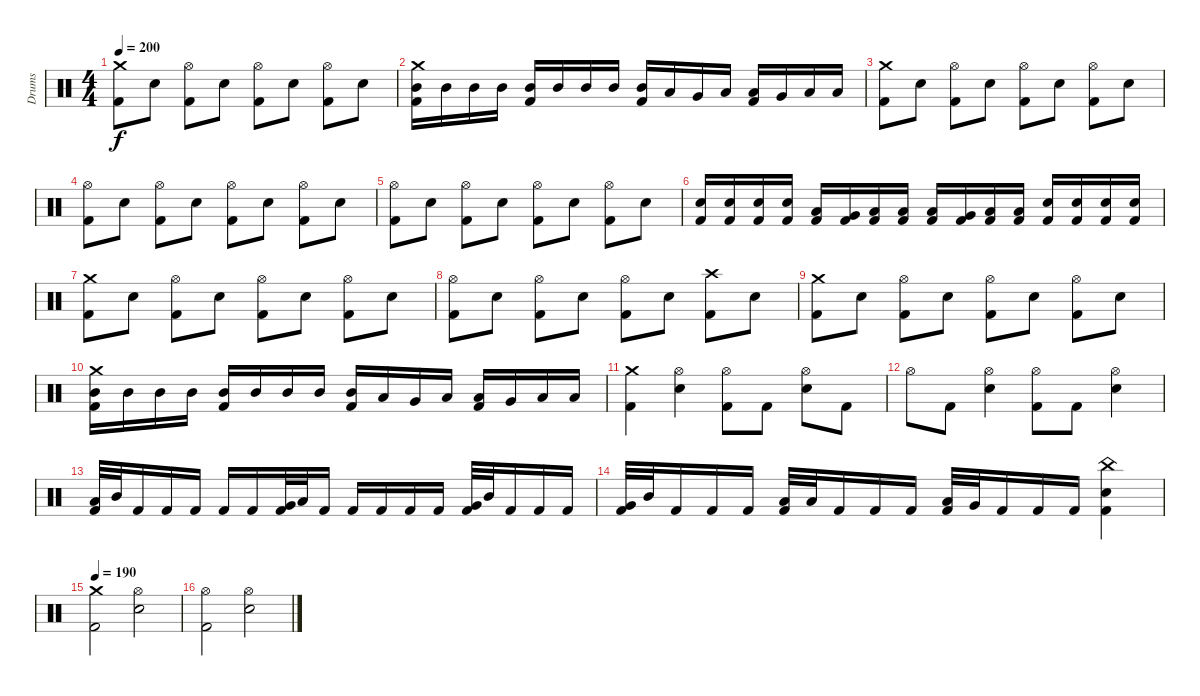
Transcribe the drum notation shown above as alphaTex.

\track ("Drums" "Drums") {instrument percussion}
\staff {score}
\articulation defaults
\ts (4 4)
\tempo 200
\clef neutral
\ks c
("Crash medium (hit)" "Kick (hit) 2").8{dy f} "Electric Snare (hit)".8 ("Hi-Hat (open)" "Kick (hit) 2").8 "Electric Snare (hit)".8 ("Hi-Hat (open)" "Kick (hit) 2").8 "Electric Snare (hit)".8 ("Hi-Hat (open)" "Kick (hit) 2").8 "Electric Snare (hit)".8 |
("Crash medium (hit)" "Mid Tom (hit)" "Kick (hit) 2").16 "Mid Tom (hit)".16 "Mid Tom (hit)".16 "Mid Tom (hit)".16 ("Mid Tom (hit)" "Kick (hit) 2").16 "Mid Tom (hit)".16 "Mid Tom (hit)".16 "Mid Tom (hit)".16 ("Mid Tom (hit)" "Kick (hit) 2").16 "Low Tom (hit)".16 "Very Low Tom (hit)".16 "Low Floor Tom (hit)".16 ("Low Tom (hit)" "Kick (hit) 2").16 "Very Low Tom (hit)".16 "Low Floor Tom (hit)".16 "Low Floor Tom (hit)".16 |
("Crash medium (hit)" "Kick (hit) 2").8 "Electric Snare (hit)".8 ("Hi-Hat (open)" "Kick (hit) 2").8 "Electric Snare (hit)".8 ("Hi-Hat (open)" "Kick (hit) 2").8 "Electric Snare (hit)".8 ("Hi-Hat (open)" "Kick (hit) 2").8 "Electric Snare (hit)".8 |
("Hi-Hat (open)" "Kick (hit) 2").8 "Electric Snare (hit)".8 ("Hi-Hat (open)" "Kick (hit) 2").8 "Electric Snare (hit)".8 ("Hi-Hat (open)" "Kick (hit) 2").8 "Electric Snare (hit)".8 ("Hi-Hat (open)" "Kick (hit) 2").8 "Electric Snare (hit)".8 |
("Hi-Hat (open)" "Kick (hit) 2").8 "Electric Snare (hit)".8 ("Hi-Hat (open)" "Kick (hit) 2").8 "Electric Snare (hit)".8 ("Hi-Hat (open)" "Kick (hit) 2").8 "Electric Snare (hit)".8 ("Hi-Hat (open)" "Kick (hit) 2").8 "Electric Snare (hit)".8 |
("Electric Snare (hit)" "Kick (hit) 2").16 ("Electric Snare (hit)" "Kick (hit) 2").16 ("Electric Snare (hit)" "Kick (hit) 2").16 ("Electric Snare (hit)" "Kick (hit) 2").16 ("Low Tom (hit)" "Kick (hit) 2").16 ("Very Low Tom (hit)" "Kick (hit) 2").16 ("Low Floor Tom (hit)" "Kick (hit) 2").16 ("Low Floor Tom (hit)" "Kick (hit) 2").16 ("Low Tom (hit)" "Kick (hit) 2").16 ("Very Low Tom (hit)" "Kick (hit) 2").16 ("Low Floor Tom (hit)" "Kick (hit) 2").16 ("Low Floor Tom (hit)" "Kick (hit) 2").16 ("Electric Snare (hit)" "Kick (hit) 2").16 ("Electric Snare (hit)" "Kick (hit) 2").16 ("Electric Snare (hit)" "Kick (hit) 2").16 ("Electric Snare (hit)" "Kick (hit) 2").16 |
("Crash medium (hit)" "Kick (hit) 2").8 "Electric Snare (hit)".8 ("Hi-Hat (open)" "Kick (hit) 2").8 "Electric Snare (hit)".8 ("Hi-Hat (open)" "Kick (hit) 2").8 "Electric Snare (hit)".8 ("Hi-Hat (open)" "Kick (hit) 2").8 "Electric Snare (hit)".8 |
("Hi-Hat (open)" "Kick (hit) 2").8 "Electric Snare (hit)".8 ("Hi-Hat (open)" "Kick (hit) 2").8 "Electric Snare (hit)".8 ("Hi-Hat (open)" "Kick (hit) 2").8 "Electric Snare (hit)".8 ("Crash high (hit)" "Kick (hit) 2").8 "Electric Snare (hit)".8 |
("Crash medium (hit)" "Kick (hit) 2").8 "Electric Snare (hit)".8 ("Hi-Hat (open)" "Kick (hit) 2").8 "Electric Snare (hit)".8 ("Hi-Hat (open)" "Kick (hit) 2").8 "Electric Snare (hit)".8 ("Hi-Hat (open)" "Kick (hit) 2").8 "Electric Snare (hit)".8 |
("Crash medium (hit)" "Mid Tom (hit)" "Kick (hit) 2").16 "Mid Tom (hit)".16 "Mid Tom (hit)".16 "Mid Tom (hit)".16 ("Mid Tom (hit)" "Kick (hit) 2").16 "Mid Tom (hit)".16 "Mid Tom (hit)".16 "Mid Tom (hit)".16 ("Mid Tom (hit)" "Kick (hit) 2").16 "Low Tom (hit)".16 "Very Low Tom (hit)".16 "Low Floor Tom (hit)".16 ("Low Tom (hit)" "Kick (hit) 2").16 "Very Low Tom (hit)".16 "Low Floor Tom (hit)".16 "Low Floor Tom (hit)".16 |
("Crash medium (hit)" "Kick (hit) 2").4 ("Hi-Hat (open)" "Electric Snare (hit)").4 ("Hi-Hat (open)" "Kick (hit) 2").8 "Kick (hit) 2".8 ("Hi-Hat (open)" "Electric Snare (hit)").8 "Kick (hit) 2".8 |
"Hi-Hat (open)".8 "Kick (hit) 2".8 ("Hi-Hat (open)" "Electric Snare (hit)").4 ("Hi-Hat (open)" "Kick (hit) 2").8 "Kick (hit) 2".8 ("Hi-Hat (open)" "Electric Snare (hit)").4 |
("Low Tom (hit)" "Kick (hit) 2").32 "Mid Tom (hit)".32 "Kick (hit) 2".16 "Kick (hit) 2".16 "Kick (hit) 2".16 "Kick (hit) 2".16 "Kick (hit) 2".16 ("Very Low Tom (hit)" "Kick (hit) 2").32 "Low Tom (hit)".32 "Kick (hit) 2".16 "Kick (hit) 2".16 "Kick (hit) 2".16 "Kick (hit) 2".16 "Kick (hit) 2".16 ("Very Low Tom (hit)" "Kick (hit) 2").32 "Mid Tom (hit)".32 "Kick (hit) 2".16 "Kick (hit) 2".16 "Kick (hit) 2".16 |
("Very Low Tom (hit)" "Kick (hit) 2").32 "Mid Tom (hit)".32 "Kick (hit) 2".16 "Kick (hit) 2".16 "Kick (hit) 2".16 ("Low Floor Tom (hit)" "Kick (hit) 2").32 "Low Tom (hit)".32 "Kick (hit) 2".16 "Kick (hit) 2".16 "Kick (hit) 2".16 ("Low Floor Tom (hit)" "Kick (hit) 2").32 "Very Low Tom (hit)".32 "Kick (hit) 2".16 "Kick (hit) 2".16 "Kick (hit) 2".16 ("China (hit)" "Electric Snare (hit)" "Kick (hit) 2").4 |
\tempo 190
("Crash medium (hit)" "Kick (hit) 2").2 ("Hi-Hat (open)" "Electric Snare (hit)").2 |
("Hi-Hat (open)" "Kick (hit) 2").2 ("Hi-Hat (open)" "Electric Snare (hit)").2
